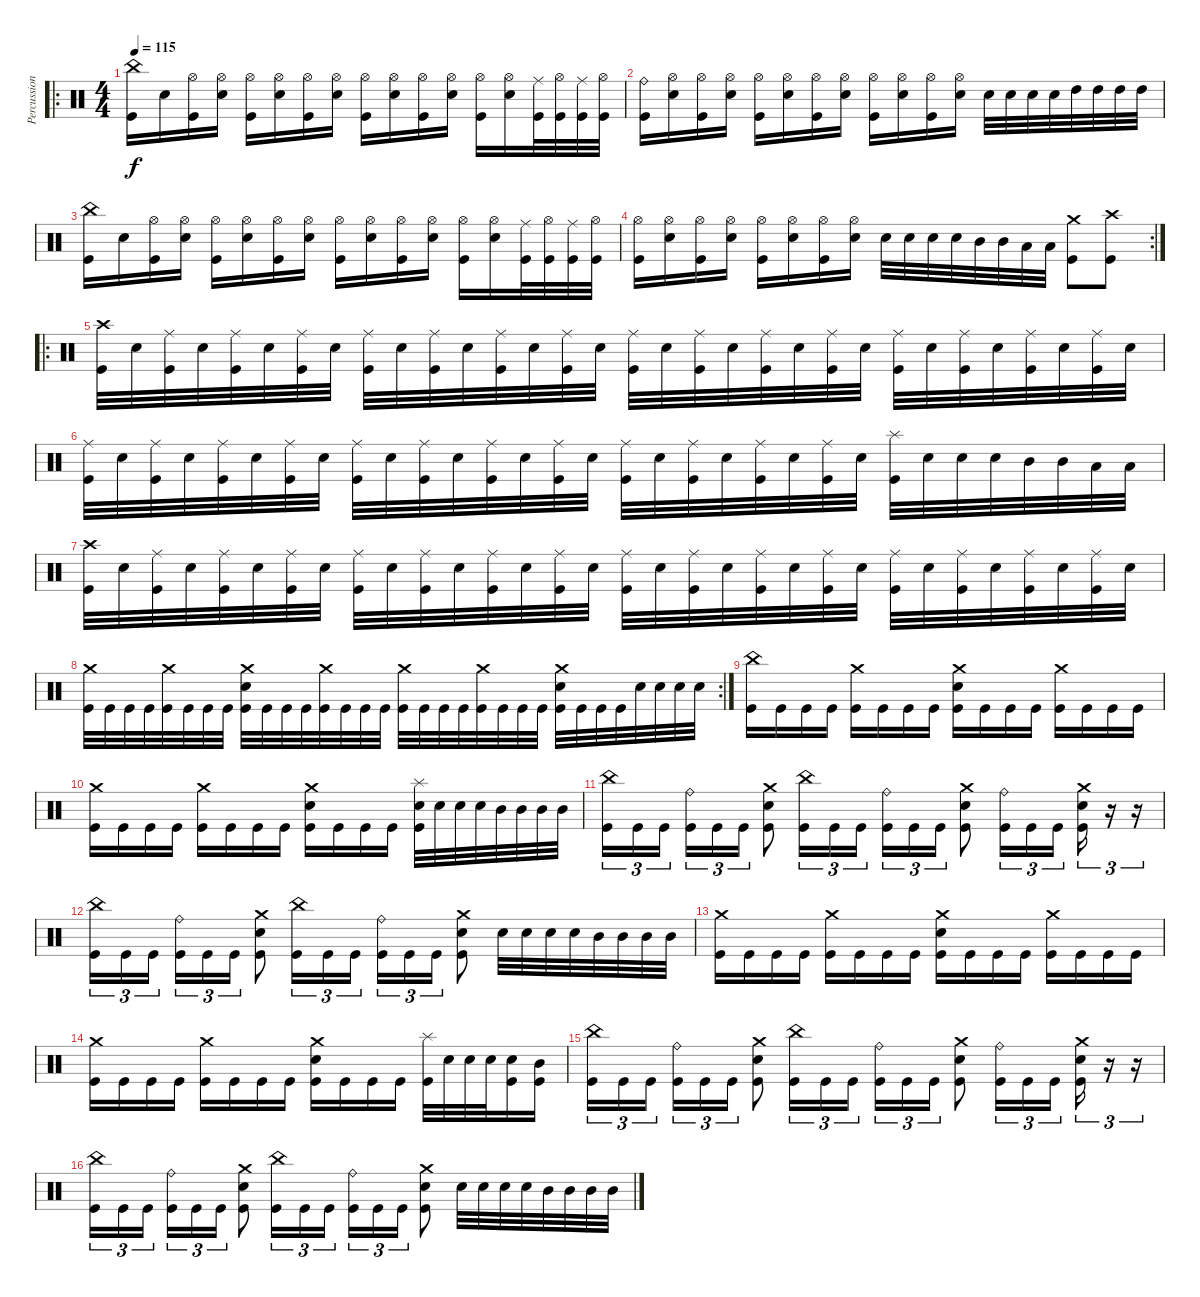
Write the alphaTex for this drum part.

\track ("Percussion" "Percussion") {instrument percussion}
\staff {score}
\articulation defaults
\ro
\ts (4 4)
\tempo 115
\clef neutral
\ks c
("China (hit)" "Kick (hit)").16{dy f} "Electric Snare (hit)".16 ("Hi-Hat (open)" "Kick (hit)").16 ("Hi-Hat (open)" "Electric Snare (hit)").16 ("Hi-Hat (open)" "Kick (hit)").16 ("Hi-Hat (open)" "Electric Snare (hit)").16 ("Hi-Hat (open)" "Kick (hit)").16 ("Hi-Hat (open)" "Electric Snare (hit)").16 ("Hi-Hat (open)" "Kick (hit)").16 ("Hi-Hat (open)" "Electric Snare (hit)").16 ("Hi-Hat (open)" "Kick (hit)").16 ("Hi-Hat (open)" "Electric Snare (hit)").16 ("Hi-Hat (open)" "Kick (hit)").16 ("Hi-Hat (open)" "Electric Snare (hit)").16 ("Ride (middle)" "Kick (hit)").32 ("Hi-Hat (open)" "Kick (hit)").32 ("Ride (middle)" "Kick (hit)").32 ("Hi-Hat (open)" "Kick (hit)").32 |
("Ride (bell)" "Kick (hit)").16 ("Hi-Hat (open)" "Electric Snare (hit)").16 ("Hi-Hat (open)" "Kick (hit)").16 ("Hi-Hat (open)" "Electric Snare (hit)").16 ("Hi-Hat (open)" "Kick (hit)").16 ("Hi-Hat (open)" "Electric Snare (hit)").16 ("Hi-Hat (open)" "Kick (hit)").16 ("Hi-Hat (open)" "Electric Snare (hit)").16 ("Hi-Hat (open)" "Kick (hit)").16 ("Hi-Hat (open)" "Electric Snare (hit)").16 ("Hi-Hat (open)" "Kick (hit)").16 ("Hi-Hat (open)" "Electric Snare (hit)").16 "Electric Snare (hit)".32 "Electric Snare (hit)".32 "Electric Snare (hit)".32 "Electric Snare (hit)".32 "High Tom (hit)".32 "High Tom (hit)".32 "High Tom (hit)".32 "High Tom (hit)".32 |
("China (hit)" "Kick (hit)").16 "Electric Snare (hit)".16 ("Hi-Hat (open)" "Kick (hit)").16 ("Hi-Hat (open)" "Electric Snare (hit)").16 ("Hi-Hat (open)" "Kick (hit)").16 ("Hi-Hat (open)" "Electric Snare (hit)").16 ("Hi-Hat (open)" "Kick (hit)").16 ("Hi-Hat (open)" "Electric Snare (hit)").16 ("Hi-Hat (open)" "Kick (hit)").16 ("Hi-Hat (open)" "Electric Snare (hit)").16 ("Hi-Hat (open)" "Kick (hit)").16 ("Hi-Hat (open)" "Electric Snare (hit)").16 ("Hi-Hat (open)" "Kick (hit)").16 ("Hi-Hat (open)" "Electric Snare (hit)").16 ("Ride (middle)" "Kick (hit)").32 ("Hi-Hat (open)" "Kick (hit)").32 ("Ride (middle)" "Kick (hit)").32 ("Hi-Hat (open)" "Kick (hit)").32 |
\rc 2
("Hi-Hat (open)" "Kick (hit)").16 ("Hi-Hat (open)" "Electric Snare (hit)").16 ("Hi-Hat (open)" "Kick (hit)").16 ("Hi-Hat (open)" "Electric Snare (hit)").16 ("Hi-Hat (open)" "Kick (hit)").16 ("Hi-Hat (open)" "Electric Snare (hit)").16 ("Hi-Hat (open)" "Kick (hit)").16 ("Hi-Hat (open)" "Electric Snare (hit)").16 "Electric Snare (hit)".32 "Electric Snare (hit)".32 "Electric Snare (hit)".32 "Electric Snare (hit)".32 "Mid Tom (hit)".32 "Mid Tom (hit)".32 "Low Tom (hit)".32 "Low Tom (hit)".32 ("Crash medium (hit)" "Kick (hit)").8 ("Crash high (hit)" "Kick (hit)").8 |
\ro
("Crash high (hit)" "Kick (hit)").32 "Electric Snare (hit)".32 ("Ride (middle)" "Kick (hit)").32 "Electric Snare (hit)".32 ("Ride (middle)" "Kick (hit)").32 "Electric Snare (hit)".32 ("Ride (middle)" "Kick (hit)").32 "Electric Snare (hit)".32 ("Ride (middle)" "Kick (hit)").32 "Electric Snare (hit)".32 ("Ride (middle)" "Kick (hit)").32 "Electric Snare (hit)".32 ("Ride (middle)" "Kick (hit)").32 "Electric Snare (hit)".32 ("Ride (middle)" "Kick (hit)").32 "Electric Snare (hit)".32 ("Ride (middle)" "Kick (hit)").32 "Electric Snare (hit)".32 ("Ride (middle)" "Kick (hit)").32 "Electric Snare (hit)".32 ("Ride (middle)" "Kick (hit)").32 "Electric Snare (hit)".32 ("Ride (middle)" "Kick (hit)").32 "Electric Snare (hit)".32 ("Ride (middle)" "Kick (hit)").32 "Electric Snare (hit)".32 ("Ride (middle)" "Kick (hit)").32 "Electric Snare (hit)".32 ("Ride (middle)" "Kick (hit)").32 "Electric Snare (hit)".32 ("Ride (middle)" "Kick (hit)").32 "Electric Snare (hit)".32 |
("Ride (middle)" "Kick (hit)").32 "Electric Snare (hit)".32 ("Ride (middle)" "Kick (hit)").32 "Electric Snare (hit)".32 ("Ride (middle)" "Kick (hit)").32 "Electric Snare (hit)".32 ("Ride (middle)" "Kick (hit)").32 "Electric Snare (hit)".32 ("Ride (middle)" "Kick (hit)").32 "Electric Snare (hit)".32 ("Ride (middle)" "Kick (hit)").32 "Electric Snare (hit)".32 ("Ride (middle)" "Kick (hit)").32 "Electric Snare (hit)".32 ("Ride (middle)" "Kick (hit)").32 "Electric Snare (hit)".32 ("Ride (middle)" "Kick (hit)").32 "Electric Snare (hit)".32 ("Ride (middle)" "Kick (hit)").32 "Electric Snare (hit)".32 ("Ride (middle)" "Kick (hit)").32 "Electric Snare (hit)".32 ("Ride (middle)" "Kick (hit)").32 "Electric Snare (hit)".32 ("Splash (hit)" "Kick (hit)").32 "Electric Snare (hit)".32 "Electric Snare (hit)".32 "Electric Snare (hit)".32 "Mid Tom (hit)".32 "Mid Tom (hit)".32 "Low Tom (hit)".32 "Low Tom (hit)".32 |
("Crash high (hit)" "Kick (hit)").32 "Electric Snare (hit)".32 ("Ride (middle)" "Kick (hit)").32 "Electric Snare (hit)".32 ("Ride (middle)" "Kick (hit)").32 "Electric Snare (hit)".32 ("Ride (middle)" "Kick (hit)").32 "Electric Snare (hit)".32 ("Ride (middle)" "Kick (hit)").32 "Electric Snare (hit)".32 ("Ride (middle)" "Kick (hit)").32 "Electric Snare (hit)".32 ("Ride (middle)" "Kick (hit)").32 "Electric Snare (hit)".32 ("Ride (middle)" "Kick (hit)").32 "Electric Snare (hit)".32 ("Ride (middle)" "Kick (hit)").32 "Electric Snare (hit)".32 ("Ride (middle)" "Kick (hit)").32 "Electric Snare (hit)".32 ("Ride (middle)" "Kick (hit)").32 "Electric Snare (hit)".32 ("Ride (middle)" "Kick (hit)").32 "Electric Snare (hit)".32 ("Ride (middle)" "Kick (hit)").32 "Electric Snare (hit)".32 ("Ride (middle)" "Kick (hit)").32 "Electric Snare (hit)".32 ("Ride (middle)" "Kick (hit)").32 "Electric Snare (hit)".32 ("Ride (middle)" "Kick (hit)").32 "Electric Snare (hit)".32 |
\rc 2
("Crash medium (hit)" "Kick (hit)").32 "Kick (hit)".32 "Kick (hit)".32 "Kick (hit)".32 ("Crash medium (hit)" "Kick (hit)").32 "Kick (hit)".32 "Kick (hit)".32 "Kick (hit)".32 ("Electric Snare (hit)" "Crash medium (hit)" "Kick (hit)").32 "Kick (hit)".32 "Kick (hit)".32 "Kick (hit)".32 ("Crash medium (hit)" "Kick (hit)").32 "Kick (hit)".32 "Kick (hit)".32 "Kick (hit)".32 ("Crash medium (hit)" "Kick (hit)").32 "Kick (hit)".32 "Kick (hit)".32 "Kick (hit)".32 ("Crash medium (hit)" "Kick (hit)").32 "Kick (hit)".32 "Kick (hit)".32 "Kick (hit)".32 ("Electric Snare (hit)" "Crash medium (hit)" "Kick (hit)").32 "Kick (hit)".32 "Kick (hit)".32 "Kick (hit)".32 "Electric Snare (hit)".32 "Electric Snare (hit)".32 "Electric Snare (hit)".32 "Electric Snare (hit)".32 |
("China (hit)" "Kick (hit)").16 "Kick (hit)".16 "Kick (hit)".16 "Kick (hit)".16 ("Crash medium (hit)" "Kick (hit)").16 "Kick (hit)".16 "Kick (hit)".16 "Kick (hit)".16 ("Crash medium (hit)" "Electric Snare (hit)" "Kick (hit)").16 "Kick (hit)".16 "Kick (hit)".16 "Kick (hit)".16 ("Crash medium (hit)" "Kick (hit)").16 "Kick (hit)".16 "Kick (hit)".16 "Kick (hit)".16 |
("Crash medium (hit)" "Kick (hit)").16 "Kick (hit)".16 "Kick (hit)".16 "Kick (hit)".16 ("Crash medium (hit)" "Kick (hit)").16 "Kick (hit)".16 "Kick (hit)".16 "Kick (hit)".16 ("Crash medium (hit)" "Electric Snare (hit)" "Kick (hit)").16 "Kick (hit)".16 "Kick (hit)".16 "Kick (hit)".16 ("Splash (hit)" "Electric Snare (hit)" "Kick (hit)").32 "Electric Snare (hit)".32 "Electric Snare (hit)".32 "Electric Snare (hit)".32 "Mid Tom (hit)".32 "Mid Tom (hit)".32 "Mid Tom (hit)".32 "Mid Tom (hit)".32 |
("China (hit)" "Kick (hit)").16{tu (3 2)} "Kick (hit)".16{tu (3 2)} "Kick (hit)".16{tu (3 2) beam splitsecondary} ("Ride (bell)" "Kick (hit)").16{tu (3 2)} "Kick (hit)".16{tu (3 2)} "Kick (hit)".16{tu (3 2)} ("Crash medium (hit)" "Electric Snare (hit)" "Kick (hit)").8 ("China (hit)" "Kick (hit)").16{tu (3 2)} "Kick (hit)".16{tu (3 2)} "Kick (hit)".16{tu (3 2)} ("Ride (bell)" "Kick (hit)").16{tu (3 2)} "Kick (hit)".16{tu (3 2)} "Kick (hit)".16{tu (3 2)} ("Crash medium (hit)" "Electric Snare (hit)" "Kick (hit)").8 ("Ride (bell)" "Kick (hit)").16{tu (3 2)} "Kick (hit)".16{tu (3 2)} "Kick (hit)".16{tu (3 2) beam splitsecondary} ("Crash medium (hit)" "Electric Snare (hit)" "Kick (hit)").16{tu (3 2)} r.16{tu (3 2)} r.16{tu (3 2)} |
("China (hit)" "Kick (hit)").16{tu (3 2)} "Kick (hit)".16{tu (3 2)} "Kick (hit)".16{tu (3 2) beam splitsecondary} ("Ride (bell)" "Kick (hit)").16{tu (3 2)} "Kick (hit)".16{tu (3 2)} "Kick (hit)".16{tu (3 2)} ("Crash medium (hit)" "Electric Snare (hit)" "Kick (hit)").8 ("China (hit)" "Kick (hit)").16{tu (3 2)} "Kick (hit)".16{tu (3 2)} "Kick (hit)".16{tu (3 2)} ("Ride (bell)" "Kick (hit)").16{tu (3 2)} "Kick (hit)".16{tu (3 2)} "Kick (hit)".16{tu (3 2)} ("Crash medium (hit)" "Electric Snare (hit)" "Kick (hit)").8 "Electric Snare (hit)".32 "Electric Snare (hit)".32 "Electric Snare (hit)".32 "Electric Snare (hit)".32 "Mid Tom (hit)".32 "Mid Tom (hit)".32 "Mid Tom (hit)".32 "Mid Tom (hit)".32 |
("Crash medium (hit)" "Kick (hit)").16 "Kick (hit)".16 "Kick (hit)".16 "Kick (hit)".16 ("Crash medium (hit)" "Kick (hit)").16 "Kick (hit)".16 "Kick (hit)".16 "Kick (hit)".16 ("Crash medium (hit)" "Electric Snare (hit)" "Kick (hit)").16 "Kick (hit)".16 "Kick (hit)".16 "Kick (hit)".16 ("Crash medium (hit)" "Kick (hit)").16 "Kick (hit)".16 "Kick (hit)".16 "Kick (hit)".16 |
("Crash medium (hit)" "Kick (hit)").16 "Kick (hit)".16 "Kick (hit)".16 "Kick (hit)".16 ("Crash medium (hit)" "Kick (hit)").16 "Kick (hit)".16 "Kick (hit)".16 "Kick (hit)".16 ("Crash medium (hit)" "Electric Snare (hit)" "Kick (hit)").16 "Kick (hit)".16 "Kick (hit)".16 "Kick (hit)".16 ("Splash (hit)" "Kick (hit)").32 "Electric Snare (hit)".32 "Electric Snare (hit)".32 "Electric Snare (hit)".32 ("Electric Snare (hit)" "Kick (hit)").16 ("Mid Tom (hit)" "Kick (hit)").16 |
("China (hit)" "Kick (hit)").16{tu (3 2)} "Kick (hit)".16{tu (3 2)} "Kick (hit)".16{tu (3 2) beam splitsecondary} ("Ride (bell)" "Kick (hit)").16{tu (3 2)} "Kick (hit)".16{tu (3 2)} "Kick (hit)".16{tu (3 2)} ("Crash medium (hit)" "Electric Snare (hit)" "Kick (hit)").8 ("China (hit)" "Kick (hit)").16{tu (3 2)} "Kick (hit)".16{tu (3 2)} "Kick (hit)".16{tu (3 2)} ("Ride (bell)" "Kick (hit)").16{tu (3 2)} "Kick (hit)".16{tu (3 2)} "Kick (hit)".16{tu (3 2)} ("Crash medium (hit)" "Electric Snare (hit)" "Kick (hit)").8 ("Ride (bell)" "Kick (hit)").16{tu (3 2)} "Kick (hit)".16{tu (3 2)} "Kick (hit)".16{tu (3 2) beam splitsecondary} ("Crash medium (hit)" "Electric Snare (hit)" "Kick (hit)").16{tu (3 2)} r.16{tu (3 2)} r.16{tu (3 2)} |
("China (hit)" "Kick (hit)").16{tu (3 2)} "Kick (hit)".16{tu (3 2)} "Kick (hit)".16{tu (3 2) beam splitsecondary} ("Ride (bell)" "Kick (hit)").16{tu (3 2)} "Kick (hit)".16{tu (3 2)} "Kick (hit)".16{tu (3 2)} ("Crash medium (hit)" "Electric Snare (hit)" "Kick (hit)").8 ("China (hit)" "Kick (hit)").16{tu (3 2)} "Kick (hit)".16{tu (3 2)} "Kick (hit)".16{tu (3 2)} ("Ride (bell)" "Kick (hit)").16{tu (3 2)} "Kick (hit)".16{tu (3 2)} "Kick (hit)".16{tu (3 2)} ("Crash medium (hit)" "Electric Snare (hit)" "Kick (hit)").8 "Electric Snare (hit)".32 "Electric Snare (hit)".32 "Electric Snare (hit)".32 "Electric Snare (hit)".32 "Mid Tom (hit)".32 "Mid Tom (hit)".32 "Mid Tom (hit)".32 "Mid Tom (hit)".32
